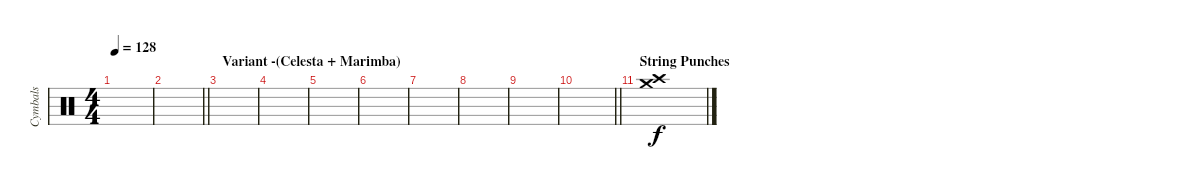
\track ("Cymbals" "Cymbals") {instrument percussion}
\staff {score}
\articulation defaults
\ts (4 4)
\tempo 128
\clef neutral
\ks c
|
\barLineRight lightlight
|
\section ("" "Variant -(Celesta + Marimba)")
|
|
|
|
|
|
|
\barLineRight lightlight
|
\section ("" "String Punches")
("Crash high (hit)" "Crash medium (hit)").1
